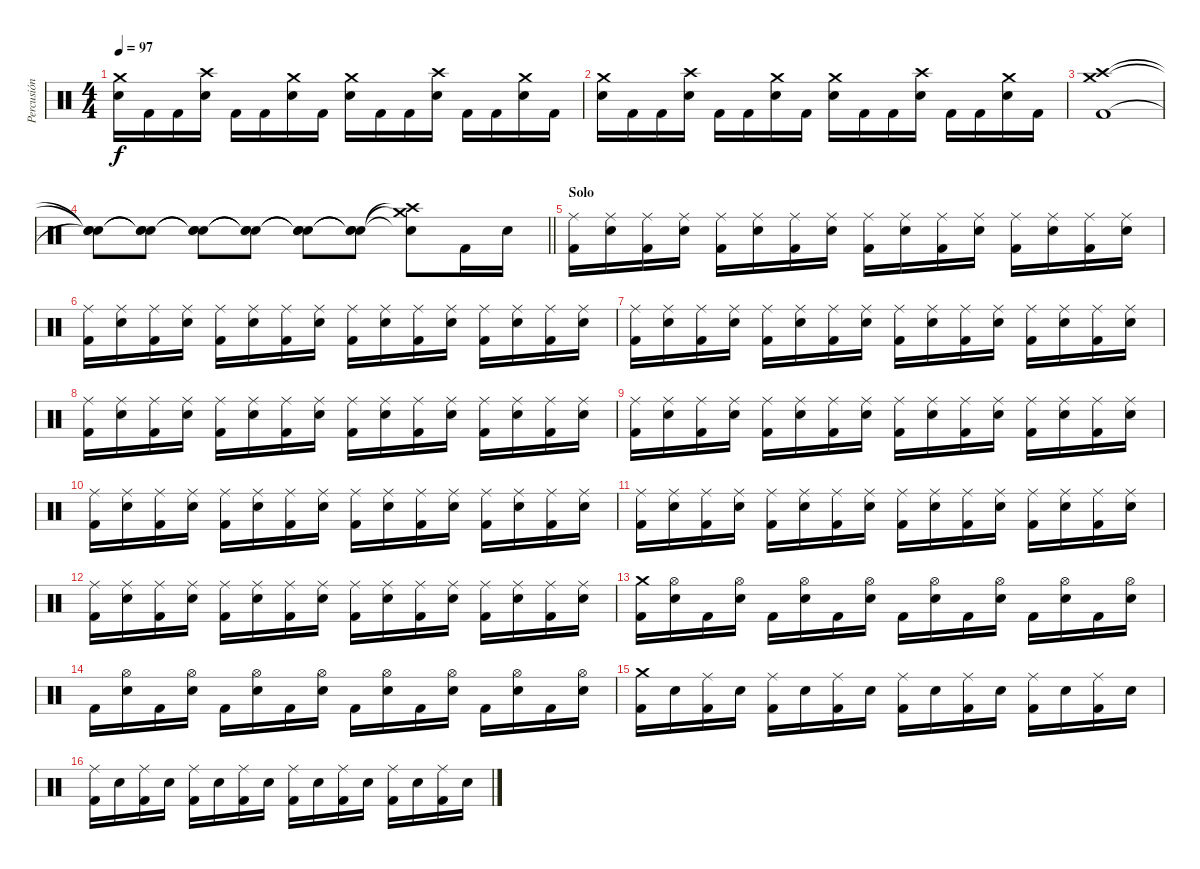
\track ("Percusión" "Percusión") {instrument percussion}
\staff {score}
\articulation defaults
\ts (4 4)
\tempo 97
\clef neutral
\ks c
("Crash medium (hit)" "Electric Snare (hit)").16{dy f} "Kick (hit) 2".16 "Kick (hit) 2".16 ("Crash high (hit)" "Electric Snare (hit)").16 "Kick (hit) 2".16 "Kick (hit) 2".16 ("Crash medium (hit)" "Electric Snare (hit)").16 "Kick (hit) 2".16 ("Crash medium (hit)" "Electric Snare (hit)").16 "Kick (hit) 2".16 "Kick (hit) 2".16 ("Crash high (hit)" "Electric Snare (hit)").16 "Kick (hit) 2".16 "Kick (hit) 2".16 ("Crash medium (hit)" "Electric Snare (hit)").16 "Kick (hit) 2".16 |
("Crash medium (hit)" "Electric Snare (hit)").16 "Kick (hit) 2".16 "Kick (hit) 2".16 ("Crash high (hit)" "Electric Snare (hit)").16 "Kick (hit) 2".16 "Kick (hit) 2".16 ("Crash medium (hit)" "Electric Snare (hit)").16 "Kick (hit) 2".16 ("Crash medium (hit)" "Electric Snare (hit)").16 "Kick (hit) 2".16 "Kick (hit) 2".16 ("Crash high (hit)" "Electric Snare (hit)").16 "Kick (hit) 2".16 "Kick (hit) 2".16 ("Crash medium (hit)" "Electric Snare (hit)").16 "Kick (hit) 2".16 |
("Crash high (hit)" "Crash medium (hit)" "Kick (hit) 2").1 |
\barLineRight lightlight
("Snare (hit)"{t} "Snare (hit)"{t} "Snare (hit)"{t}).8 ("Snare (hit)"{t} "Snare (hit)"{t} "Snare (hit)"{t}).8 ("Snare (hit)"{t} "Snare (hit)"{t} "Snare (hit)"{t}).8 ("Snare (hit)"{t} "Snare (hit)"{t} "Snare (hit)"{t}).8 ("Snare (hit)"{t} "Snare (hit)"{t} "Snare (hit)"{t}).8 ("Snare (hit)"{t} "Snare (hit)"{t} "Snare (hit)"{t}).8 ("Crash high (hit)"{t} "Crash medium (hit)"{t} "Snare (hit)"{t}).8 "Kick (hit) 2".16 "Snare (hit) 2".16 |
\section ("" "Solo")
("Ride (middle)" "Kick (hit) 2").16 ("Ride (middle)" "Snare (hit) 2").16 ("Ride (middle)" "Kick (hit) 2").16 ("Ride (middle)" "Snare (hit) 2").16 ("Ride (middle)" "Kick (hit) 2").16 ("Ride (middle)" "Snare (hit) 2").16 ("Ride (middle)" "Kick (hit) 2").16 ("Ride (middle)" "Snare (hit) 2").16 ("Ride (middle)" "Kick (hit) 2").16 ("Ride (middle)" "Snare (hit) 2").16 ("Ride (middle)" "Kick (hit) 2").16 ("Ride (middle)" "Snare (hit) 2").16 ("Ride (middle)" "Kick (hit) 2").16 ("Ride (middle)" "Snare (hit) 2").16 ("Ride (middle)" "Kick (hit) 2").16 ("Ride (middle)" "Snare (hit) 2").16 |
("Ride (middle)" "Kick (hit) 2").16 ("Ride (middle)" "Snare (hit) 2").16 ("Ride (middle)" "Kick (hit) 2").16 ("Ride (middle)" "Snare (hit) 2").16 ("Ride (middle)" "Kick (hit) 2").16 ("Ride (middle)" "Snare (hit) 2").16 ("Ride (middle)" "Kick (hit) 2").16 ("Ride (middle)" "Snare (hit) 2").16 ("Ride (middle)" "Kick (hit) 2").16 ("Ride (middle)" "Snare (hit) 2").16 ("Ride (middle)" "Kick (hit) 2").16 ("Ride (middle)" "Snare (hit) 2").16 ("Ride (middle)" "Kick (hit) 2").16 ("Ride (middle)" "Snare (hit) 2").16 ("Ride (middle)" "Kick (hit) 2").16 ("Ride (middle)" "Snare (hit) 2").16 |
("Ride (middle)" "Kick (hit) 2").16 ("Ride (middle)" "Snare (hit) 2").16 ("Ride (middle)" "Kick (hit) 2").16 ("Ride (middle)" "Snare (hit) 2").16 ("Ride (middle)" "Kick (hit) 2").16 ("Ride (middle)" "Snare (hit) 2").16 ("Ride (middle)" "Kick (hit) 2").16 ("Ride (middle)" "Snare (hit) 2").16 ("Ride (middle)" "Kick (hit) 2").16 ("Ride (middle)" "Snare (hit) 2").16 ("Ride (middle)" "Kick (hit) 2").16 ("Ride (middle)" "Snare (hit) 2").16 ("Ride (middle)" "Kick (hit) 2").16 ("Ride (middle)" "Snare (hit) 2").16 ("Ride (middle)" "Kick (hit) 2").16 ("Ride (middle)" "Snare (hit) 2").16 |
("Ride (middle)" "Kick (hit) 2").16 ("Ride (middle)" "Snare (hit) 2").16 ("Ride (middle)" "Kick (hit) 2").16 ("Ride (middle)" "Snare (hit) 2").16 ("Ride (middle)" "Kick (hit) 2").16 ("Ride (middle)" "Snare (hit) 2").16 ("Ride (middle)" "Kick (hit) 2").16 ("Ride (middle)" "Snare (hit) 2").16 ("Ride (middle)" "Kick (hit) 2").16 ("Ride (middle)" "Snare (hit) 2").16 ("Ride (middle)" "Kick (hit) 2").16 ("Ride (middle)" "Snare (hit) 2").16 ("Ride (middle)" "Kick (hit) 2").16 ("Ride (middle)" "Snare (hit) 2").16 ("Ride (middle)" "Kick (hit) 2").16 ("Ride (middle)" "Snare (hit) 2").16 |
("Ride (middle)" "Kick (hit) 2").16 ("Ride (middle)" "Snare (hit) 2").16 ("Ride (middle)" "Kick (hit) 2").16 ("Ride (middle)" "Snare (hit) 2").16 ("Ride (middle)" "Kick (hit) 2").16 ("Ride (middle)" "Snare (hit) 2").16 ("Ride (middle)" "Kick (hit) 2").16 ("Ride (middle)" "Snare (hit) 2").16 ("Ride (middle)" "Kick (hit) 2").16 ("Ride (middle)" "Snare (hit) 2").16 ("Ride (middle)" "Kick (hit) 2").16 ("Ride (middle)" "Snare (hit) 2").16 ("Ride (middle)" "Kick (hit) 2").16 ("Ride (middle)" "Snare (hit) 2").16 ("Ride (middle)" "Kick (hit) 2").16 ("Ride (middle)" "Snare (hit) 2").16 |
("Ride (middle)" "Kick (hit) 2").16 ("Ride (middle)" "Snare (hit) 2").16 ("Ride (middle)" "Kick (hit) 2").16 ("Ride (middle)" "Snare (hit) 2").16 ("Ride (middle)" "Kick (hit) 2").16 ("Ride (middle)" "Snare (hit) 2").16 ("Ride (middle)" "Kick (hit) 2").16 ("Ride (middle)" "Snare (hit) 2").16 ("Ride (middle)" "Kick (hit) 2").16 ("Ride (middle)" "Snare (hit) 2").16 ("Ride (middle)" "Kick (hit) 2").16 ("Ride (middle)" "Snare (hit) 2").16 ("Ride (middle)" "Kick (hit) 2").16 ("Ride (middle)" "Snare (hit) 2").16 ("Ride (middle)" "Kick (hit) 2").16 ("Ride (middle)" "Snare (hit) 2").16 |
("Ride (middle)" "Kick (hit) 2").16 ("Ride (middle)" "Snare (hit) 2").16 ("Ride (middle)" "Kick (hit) 2").16 ("Ride (middle)" "Snare (hit) 2").16 ("Ride (middle)" "Kick (hit) 2").16 ("Ride (middle)" "Snare (hit) 2").16 ("Ride (middle)" "Kick (hit) 2").16 ("Ride (middle)" "Snare (hit) 2").16 ("Ride (middle)" "Kick (hit) 2").16 ("Ride (middle)" "Snare (hit) 2").16 ("Ride (middle)" "Kick (hit) 2").16 ("Ride (middle)" "Snare (hit) 2").16 ("Ride (middle)" "Kick (hit) 2").16 ("Ride (middle)" "Snare (hit) 2").16 ("Ride (middle)" "Kick (hit) 2").16 ("Ride (middle)" "Snare (hit) 2").16 |
("Ride (middle)" "Kick (hit) 2").16 ("Ride (middle)" "Snare (hit) 2").16 ("Ride (middle)" "Kick (hit) 2").16 ("Ride (middle)" "Snare (hit) 2").16 ("Ride (middle)" "Kick (hit) 2").16 ("Ride (middle)" "Snare (hit) 2").16 ("Ride (middle)" "Kick (hit) 2").16 ("Ride (middle)" "Snare (hit) 2").16 ("Ride (middle)" "Kick (hit) 2").16 ("Ride (middle)" "Snare (hit) 2").16 ("Ride (middle)" "Kick (hit) 2").16 ("Ride (middle)" "Snare (hit) 2").16 ("Ride (middle)" "Kick (hit) 2").16 ("Ride (middle)" "Snare (hit) 2").16 ("Ride (middle)" "Kick (hit) 2").16 ("Ride (middle)" "Snare (hit) 2").16 |
("Crash medium (hit)" "Kick (hit) 2").16 ("Hi-Hat (open)" "Snare (hit) 2").16 "Kick (hit) 2".16 ("Hi-Hat (open)" "Snare (hit) 2").16 "Kick (hit) 2".16 ("Hi-Hat (open)" "Snare (hit) 2").16 "Kick (hit) 2".16 ("Hi-Hat (open)" "Snare (hit) 2").16 "Kick (hit) 2".16 ("Hi-Hat (open)" "Snare (hit) 2").16 "Kick (hit) 2".16 ("Hi-Hat (open)" "Snare (hit) 2").16 "Kick (hit) 2".16 ("Hi-Hat (open)" "Snare (hit) 2").16 "Kick (hit) 2".16 ("Hi-Hat (open)" "Snare (hit) 2").16 |
"Kick (hit) 2".16 ("Hi-Hat (open)" "Snare (hit) 2").16 "Kick (hit) 2".16 ("Hi-Hat (open)" "Snare (hit) 2").16 "Kick (hit) 2".16 ("Hi-Hat (open)" "Snare (hit) 2").16 "Kick (hit) 2".16 ("Hi-Hat (open)" "Snare (hit) 2").16 "Kick (hit) 2".16 ("Hi-Hat (open)" "Snare (hit) 2").16 "Kick (hit) 2".16 ("Hi-Hat (open)" "Snare (hit) 2").16 "Kick (hit) 2".16 ("Hi-Hat (open)" "Snare (hit) 2").16 "Kick (hit) 2".16 ("Hi-Hat (open)" "Snare (hit) 2").16 |
("Crash medium (hit)" "Kick (hit) 2").16 "Snare (hit) 2".16 ("Ride (middle)" "Kick (hit) 2").16 "Snare (hit) 2".16 ("Ride (middle)" "Kick (hit) 2").16 "Snare (hit) 2".16 ("Ride (middle)" "Kick (hit) 2").16 "Snare (hit) 2".16 ("Ride (middle)" "Kick (hit) 2").16 "Snare (hit) 2".16 ("Ride (middle)" "Kick (hit) 2").16 "Snare (hit) 2".16 ("Ride (middle)" "Kick (hit) 2").16 "Snare (hit) 2".16 ("Ride (middle)" "Kick (hit) 2").16 "Snare (hit) 2".16 |
("Ride (middle)" "Kick (hit) 2").16 "Snare (hit) 2".16 ("Ride (middle)" "Kick (hit) 2").16 "Snare (hit) 2".16 ("Ride (middle)" "Kick (hit) 2").16 "Snare (hit) 2".16 ("Ride (middle)" "Kick (hit) 2").16 "Snare (hit) 2".16 ("Ride (middle)" "Kick (hit) 2").16 "Snare (hit) 2".16 ("Ride (middle)" "Kick (hit) 2").16 "Snare (hit) 2".16 ("Ride (middle)" "Kick (hit) 2").16 "Snare (hit) 2".16 ("Ride (middle)" "Kick (hit) 2").16 "Snare (hit) 2".16
